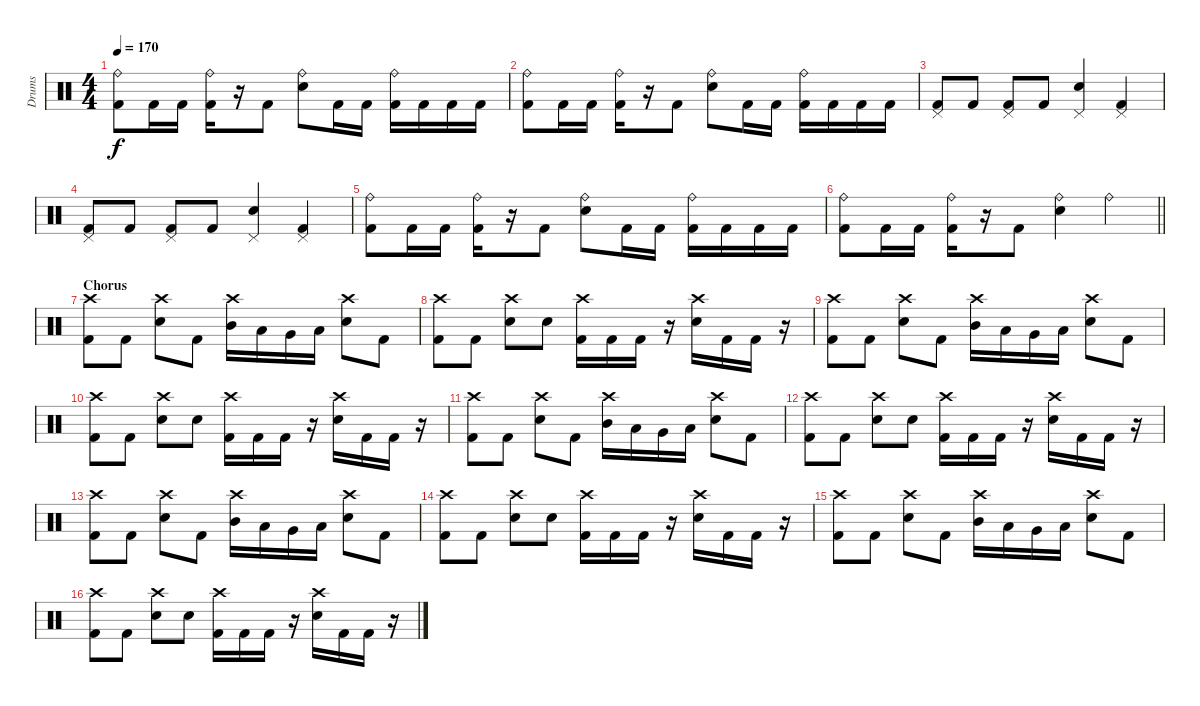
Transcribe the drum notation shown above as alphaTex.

\track ("Drums" "Drums") {instrument percussion}
\staff {score}
\articulation defaults
\ts (4 4)
\tempo 170
\clef neutral
\ks c
("Ride (bell)" "Kick (hit) 2").8{dy f} "Kick (hit) 2".16 "Kick (hit) 2".16 ("Ride (bell)" "Kick (hit) 2").16 r.16 "Kick (hit) 2".8 ("Ride (bell)" "Electric Snare (hit)").8 "Kick (hit) 2".16 "Kick (hit) 2".16 ("Ride (bell)" "Kick (hit) 2").16 "Kick (hit) 2".16 "Kick (hit) 2".16 "Kick (hit) 2".16 |
("Ride (bell)" "Kick (hit) 2").8 "Kick (hit) 2".16 "Kick (hit) 2".16 ("Ride (bell)" "Kick (hit) 2").16 r.16 "Kick (hit) 2".8 ("Ride (bell)" "Electric Snare (hit)").8 "Kick (hit) 2".16 "Kick (hit) 2".16 ("Ride (bell)" "Kick (hit) 2").16 "Kick (hit) 2".16 "Kick (hit) 2".16 "Kick (hit) 2".16 |
("Pedal Hi-Hat (hit)" "Kick (hit) 2").8 "Kick (hit) 2".8 ("Pedal Hi-Hat (hit)" "Kick (hit) 2").8 "Kick (hit) 2".8 ("Pedal Hi-Hat (hit)" "Electric Snare (hit)").4 ("Pedal Hi-Hat (hit)" "Kick (hit) 2").4 |
("Pedal Hi-Hat (hit)" "Kick (hit) 2").8 "Kick (hit) 2".8 ("Pedal Hi-Hat (hit)" "Kick (hit) 2").8 "Kick (hit) 2".8 ("Pedal Hi-Hat (hit)" "Electric Snare (hit)").4 ("Pedal Hi-Hat (hit)" "Kick (hit) 2").4 |
("Ride (bell)" "Kick (hit) 2").8 "Kick (hit) 2".16 "Kick (hit) 2".16 ("Ride (bell)" "Kick (hit) 2").16 r.16 "Kick (hit) 2".8 ("Ride (bell)" "Electric Snare (hit)").8 "Kick (hit) 2".16 "Kick (hit) 2".16 ("Ride (bell)" "Kick (hit) 2").16 "Kick (hit) 2".16 "Kick (hit) 2".16 "Kick (hit) 2".16 |
\barLineRight lightlight
("Ride (bell)" "Kick (hit) 2").8 "Kick (hit) 2".16 "Kick (hit) 2".16 ("Ride (bell)" "Kick (hit) 2").16 r.16 "Kick (hit) 2".8 ("Ride (bell)" "Electric Snare (hit)").4 "Ride (bell)".4 |
\section ("" "Chorus")
("Crash high (hit)" "Kick (hit) 2").8 "Kick (hit) 2".8 ("Crash high (hit)" "Electric Snare (hit)").8 "Kick (hit) 2".8 ("Crash high (hit)" "Mid Tom (hit)").16 "Low Tom (hit)".16 "Very Low Tom (hit)".16 "Low Tom (hit)".16 ("Crash high (hit)" "Electric Snare (hit)").8 "Kick (hit) 2".8 |
("Crash high (hit)" "Kick (hit) 2").8 "Kick (hit) 2".8 ("Crash high (hit)" "Electric Snare (hit)").8 "Electric Snare (hit)".8 ("Crash high (hit)" "Kick (hit) 2").16 "Kick (hit) 2".16 "Kick (hit) 2".16 r.16 ("Crash high (hit)" "Electric Snare (hit)").16 "Kick (hit) 2".16 "Kick (hit) 2".16 r.16 |
("Crash high (hit)" "Kick (hit) 2").8 "Kick (hit) 2".8 ("Crash high (hit)" "Electric Snare (hit)").8 "Kick (hit) 2".8 ("Crash high (hit)" "Mid Tom (hit)").16 "Low Tom (hit)".16 "Very Low Tom (hit)".16 "Low Tom (hit)".16 ("Crash high (hit)" "Electric Snare (hit)").8 "Kick (hit) 2".8 |
("Crash high (hit)" "Kick (hit) 2").8 "Kick (hit) 2".8 ("Crash high (hit)" "Electric Snare (hit)").8 "Electric Snare (hit)".8 ("Crash high (hit)" "Kick (hit) 2").16 "Kick (hit) 2".16 "Kick (hit) 2".16 r.16 ("Crash high (hit)" "Electric Snare (hit)").16 "Kick (hit) 2".16 "Kick (hit) 2".16 r.16 |
("Crash high (hit)" "Kick (hit) 2").8 "Kick (hit) 2".8 ("Crash high (hit)" "Electric Snare (hit)").8 "Kick (hit) 2".8 ("Crash high (hit)" "Mid Tom (hit)").16 "Low Tom (hit)".16 "Very Low Tom (hit)".16 "Low Tom (hit)".16 ("Crash high (hit)" "Electric Snare (hit)").8 "Kick (hit) 2".8 |
("Crash high (hit)" "Kick (hit) 2").8 "Kick (hit) 2".8 ("Crash high (hit)" "Electric Snare (hit)").8 "Electric Snare (hit)".8 ("Crash high (hit)" "Kick (hit) 2").16 "Kick (hit) 2".16 "Kick (hit) 2".16 r.16 ("Crash high (hit)" "Electric Snare (hit)").16 "Kick (hit) 2".16 "Kick (hit) 2".16 r.16 |
("Crash high (hit)" "Kick (hit) 2").8 "Kick (hit) 2".8 ("Crash high (hit)" "Electric Snare (hit)").8 "Kick (hit) 2".8 ("Crash high (hit)" "Mid Tom (hit)").16 "Low Tom (hit)".16 "Very Low Tom (hit)".16 "Low Tom (hit)".16 ("Crash high (hit)" "Electric Snare (hit)").8 "Kick (hit) 2".8 |
("Crash high (hit)" "Kick (hit) 2").8 "Kick (hit) 2".8 ("Crash high (hit)" "Electric Snare (hit)").8 "Electric Snare (hit)".8 ("Crash high (hit)" "Kick (hit) 2").16 "Kick (hit) 2".16 "Kick (hit) 2".16 r.16 ("Crash high (hit)" "Electric Snare (hit)").16 "Kick (hit) 2".16 "Kick (hit) 2".16 r.16 |
("Crash high (hit)" "Kick (hit) 2").8 "Kick (hit) 2".8 ("Crash high (hit)" "Electric Snare (hit)").8 "Kick (hit) 2".8 ("Crash high (hit)" "Mid Tom (hit)").16 "Low Tom (hit)".16 "Very Low Tom (hit)".16 "Low Tom (hit)".16 ("Crash high (hit)" "Electric Snare (hit)").8 "Kick (hit) 2".8 |
("Crash high (hit)" "Kick (hit) 2").8 "Kick (hit) 2".8 ("Crash high (hit)" "Electric Snare (hit)").8 "Electric Snare (hit)".8 ("Crash high (hit)" "Kick (hit) 2").16 "Kick (hit) 2".16 "Kick (hit) 2".16 r.16 ("Crash high (hit)" "Electric Snare (hit)").16 "Kick (hit) 2".16 "Kick (hit) 2".16 r.16
